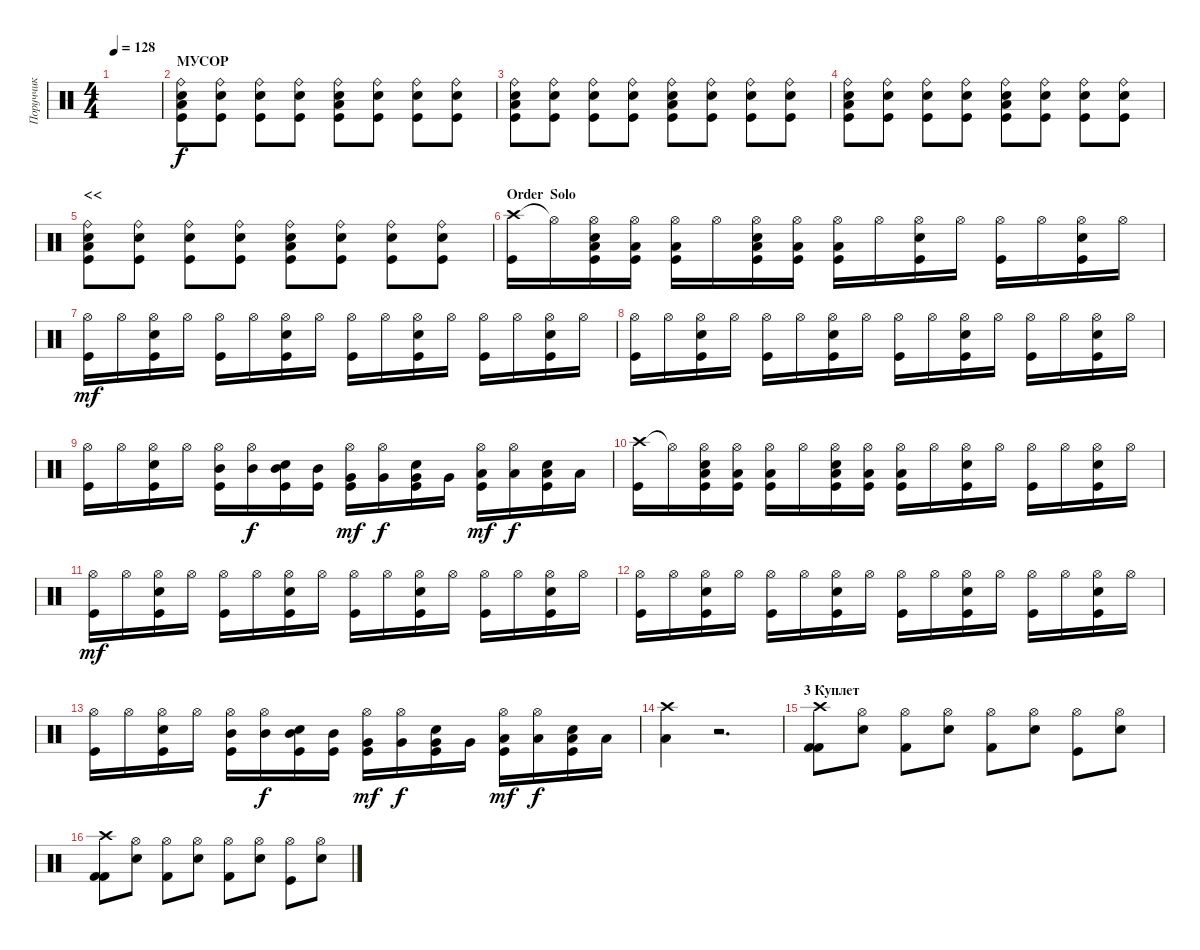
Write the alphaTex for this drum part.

\track ("Поруччик" "Поруччик") {instrument percussion}
\staff {score}
\articulation defaults
\ts (4 4)
\tempo 128
\clef neutral
\ks c
|
\section ("" "МУСОР")
("Ride (bell)" "Snare (hit) 2" "Low Tom (hit)" "Kick (hit)").8 ("Ride (bell)" "Snare (hit) 2" "Kick (hit)").8 ("Ride (bell)" "Snare (hit) 2" "Kick (hit)").8 ("Ride (bell)" "Snare (hit) 2" "Kick (hit)").8 ("Ride (bell)" "Snare (hit) 2" "Low Tom (hit)" "Kick (hit)").8 ("Ride (bell)" "Snare (hit) 2" "Kick (hit)").8 ("Ride (bell)" "Snare (hit) 2" "Kick (hit)").8 ("Ride (bell)" "Snare (hit) 2" "Kick (hit)").8 |
("Ride (bell)" "Snare (hit) 2" "Low Tom (hit)" "Kick (hit)").8 ("Ride (bell)" "Snare (hit) 2" "Kick (hit)").8 ("Ride (bell)" "Snare (hit) 2" "Kick (hit)").8 ("Ride (bell)" "Snare (hit) 2" "Kick (hit)").8 ("Ride (bell)" "Snare (hit) 2" "Low Tom (hit)" "Kick (hit)").8 ("Ride (bell)" "Snare (hit) 2" "Kick (hit)").8 ("Ride (bell)" "Snare (hit) 2" "Kick (hit)").8 ("Ride (bell)" "Snare (hit) 2" "Kick (hit)").8 |
("Ride (bell)" "Snare (hit) 2" "Low Tom (hit)" "Kick (hit)").8 ("Ride (bell)" "Snare (hit) 2" "Kick (hit)").8 ("Ride (bell)" "Snare (hit) 2" "Kick (hit)").8 ("Ride (bell)" "Snare (hit) 2" "Kick (hit)").8 ("Ride (bell)" "Snare (hit) 2" "Low Tom (hit)" "Kick (hit)").8 ("Ride (bell)" "Snare (hit) 2" "Kick (hit)").8 ("Ride (bell)" "Snare (hit) 2" "Kick (hit)").8 ("Ride (bell)" "Snare (hit) 2" "Kick (hit)").8 |
\section ("" "<<")
("Ride (bell)" "Snare (hit) 2" "Low Tom (hit)" "Kick (hit)").8 ("Ride (bell)" "Snare (hit) 2" "Kick (hit)").8 ("Ride (bell)" "Snare (hit) 2" "Kick (hit)").8 ("Ride (bell)" "Snare (hit) 2" "Kick (hit)").8 ("Ride (bell)" "Snare (hit) 2" "Low Tom (hit)" "Kick (hit)").8 ("Ride (bell)" "Snare (hit) 2" "Kick (hit)").8 ("Ride (bell)" "Snare (hit) 2" "Kick (hit)").8 ("Ride (bell)" "Snare (hit) 2" "Kick (hit)").8 |
\section ("" "Order  Solo")
("Crash high (hit)" "Kick (hit)").16 "Hi-Hat (open)"{t}.16 ("Hi-Hat (open)" "Snare (hit) 2" "Low Tom (hit)" "Kick (hit)").16 ("Hi-Hat (open)" "Low Tom (hit)" "Kick (hit)").16 ("Hi-Hat (open)" "Low Tom (hit)" "Kick (hit)").16 "Hi-Hat (open)".16 ("Hi-Hat (open)" "Snare (hit) 2" "Low Tom (hit)" "Kick (hit)").16 ("Hi-Hat (open)" "Low Tom (hit)" "Kick (hit)").16 ("Hi-Hat (open)" "Low Tom (hit)" "Kick (hit)").16 "Hi-Hat (open)".16 ("Hi-Hat (open)" "Snare (hit) 2" "Kick (hit)").16 "Hi-Hat (open)".16 ("Hi-Hat (open)" "Kick (hit)").16 "Hi-Hat (open)".16 ("Hi-Hat (open)" "Snare (hit) 2" "Kick (hit)").16 "Hi-Hat (open)".16 |
("Hi-Hat (open)" "Kick (hit)").16{dy mf} "Hi-Hat (open)".16 ("Hi-Hat (open)" "Snare (hit) 2" "Kick (hit)").16 "Hi-Hat (open)".16 ("Hi-Hat (open)" "Kick (hit)").16 "Hi-Hat (open)".16 ("Hi-Hat (open)" "Snare (hit) 2" "Kick (hit)").16 "Hi-Hat (open)".16 ("Hi-Hat (open)" "Kick (hit)").16 "Hi-Hat (open)".16 ("Hi-Hat (open)" "Snare (hit) 2" "Kick (hit)").16 "Hi-Hat (open)".16 ("Hi-Hat (open)" "Kick (hit)").16 "Hi-Hat (open)".16 ("Hi-Hat (open)" "Snare (hit) 2" "Kick (hit)").16 "Hi-Hat (open)".16 |
("Hi-Hat (open)" "Kick (hit)").16 "Hi-Hat (open)".16 ("Hi-Hat (open)" "Snare (hit) 2" "Kick (hit)").16 "Hi-Hat (open)".16 ("Hi-Hat (open)" "Kick (hit)").16 "Hi-Hat (open)".16 ("Hi-Hat (open)" "Snare (hit) 2" "Kick (hit)").16 "Hi-Hat (open)".16 ("Hi-Hat (open)" "Kick (hit)").16 "Hi-Hat (open)".16 ("Hi-Hat (open)" "Snare (hit) 2" "Kick (hit)").16 "Hi-Hat (open)".16 ("Hi-Hat (open)" "Kick (hit)").16 "Hi-Hat (open)".16 ("Hi-Hat (open)" "Snare (hit) 2" "Kick (hit)").16 "Hi-Hat (open)".16 |
("Hi-Hat (open)" "Kick (hit)").16 "Hi-Hat (open)".16 ("Hi-Hat (open)" "Snare (hit) 2" "Kick (hit)").16 "Hi-Hat (open)".16 ("Hi-Hat (open)" "Mid Tom (hit)" "Kick (hit)").16 ("Hi-Hat (open)" "Mid Tom (hit)").16{dy f} ("Mid Tom (hit)" "Snare (hit) 2" "Kick (hit)").16 ("Mid Tom (hit)" "Kick (hit)").16 ("Hi-Hat (open)" "Very Low Tom (hit)" "Kick (hit)").16{dy mf} ("Hi-Hat (open)" "Very Low Tom (hit)").16{dy f} ("Very Low Tom (hit)" "Snare (hit) 2" "Kick (hit)").16 "Very Low Tom (hit)".16 ("Hi-Hat (open)" "Low Tom (hit)" "Kick (hit)").16{dy mf} ("Hi-Hat (open)" "Low Tom (hit)").16{dy f} ("Snare (hit) 2" "Low Tom (hit)" "Kick (hit)").16 "Low Tom (hit)".16 |
("Crash high (hit)" "Kick (hit)").16 "Hi-Hat (open)"{t}.16 ("Hi-Hat (open)" "Snare (hit) 2" "Low Tom (hit)" "Kick (hit)").16 ("Hi-Hat (open)" "Low Tom (hit)" "Kick (hit)").16 ("Hi-Hat (open)" "Low Tom (hit)" "Kick (hit)").16 "Hi-Hat (open)".16 ("Hi-Hat (open)" "Snare (hit) 2" "Low Tom (hit)" "Kick (hit)").16 ("Hi-Hat (open)" "Low Tom (hit)" "Kick (hit)").16 ("Hi-Hat (open)" "Low Tom (hit)" "Kick (hit)").16 "Hi-Hat (open)".16 ("Hi-Hat (open)" "Snare (hit) 2" "Kick (hit)").16 "Hi-Hat (open)".16 ("Hi-Hat (open)" "Kick (hit)").16 "Hi-Hat (open)".16 ("Hi-Hat (open)" "Snare (hit) 2" "Kick (hit)").16 "Hi-Hat (open)".16 |
("Hi-Hat (open)" "Kick (hit)").16{dy mf} "Hi-Hat (open)".16 ("Hi-Hat (open)" "Snare (hit) 2" "Kick (hit)").16 "Hi-Hat (open)".16 ("Hi-Hat (open)" "Kick (hit)").16 "Hi-Hat (open)".16 ("Hi-Hat (open)" "Snare (hit) 2" "Kick (hit)").16 "Hi-Hat (open)".16 ("Hi-Hat (open)" "Kick (hit)").16 "Hi-Hat (open)".16 ("Hi-Hat (open)" "Snare (hit) 2" "Kick (hit)").16 "Hi-Hat (open)".16 ("Hi-Hat (open)" "Kick (hit)").16 "Hi-Hat (open)".16 ("Hi-Hat (open)" "Snare (hit) 2" "Kick (hit)").16 "Hi-Hat (open)".16 |
("Hi-Hat (open)" "Kick (hit)").16 "Hi-Hat (open)".16 ("Hi-Hat (open)" "Snare (hit) 2" "Kick (hit)").16 "Hi-Hat (open)".16 ("Hi-Hat (open)" "Kick (hit)").16 "Hi-Hat (open)".16 ("Hi-Hat (open)" "Snare (hit) 2" "Kick (hit)").16 "Hi-Hat (open)".16 ("Hi-Hat (open)" "Kick (hit)").16 "Hi-Hat (open)".16 ("Hi-Hat (open)" "Snare (hit) 2" "Kick (hit)").16 "Hi-Hat (open)".16 ("Hi-Hat (open)" "Kick (hit)").16 "Hi-Hat (open)".16 ("Hi-Hat (open)" "Snare (hit) 2" "Kick (hit)").16 "Hi-Hat (open)".16 |
("Hi-Hat (open)" "Kick (hit)").16 "Hi-Hat (open)".16 ("Hi-Hat (open)" "Snare (hit) 2" "Kick (hit)").16 "Hi-Hat (open)".16 ("Hi-Hat (open)" "Mid Tom (hit)" "Kick (hit)").16 ("Hi-Hat (open)" "Mid Tom (hit)").16{dy f} ("Mid Tom (hit)" "Snare (hit) 2" "Kick (hit)").16 ("Mid Tom (hit)" "Kick (hit)").16 ("Hi-Hat (open)" "Very Low Tom (hit)" "Kick (hit)").16{dy mf} ("Hi-Hat (open)" "Very Low Tom (hit)").16{dy f} ("Very Low Tom (hit)" "Snare (hit) 2" "Kick (hit)").16 "Very Low Tom (hit)".16 ("Hi-Hat (open)" "Low Tom (hit)" "Kick (hit)").16{dy mf} ("Hi-Hat (open)" "Low Tom (hit)").16{dy f} ("Snare (hit) 2" "Low Tom (hit)" "Kick (hit)").16 "Low Tom (hit)".16 |
("Crash high (hit)" "Low Tom (hit)").4 r.2{d} |
\section ("" "3 Куплет")
("Crash high (hit)" "Kick (hit) 2" "Kick (hit) 2").8 ("Hi-Hat (open)" "Snare (hit) 2").8 ("Hi-Hat (open)" "Kick (hit) 2").8 ("Hi-Hat (open)" "Snare (hit) 2").8 ("Hi-Hat (open)" "Kick (hit) 2").8 ("Hi-Hat (open)" "Snare (hit) 2").8 ("Hi-Hat (open)" "Kick (hit)").8 ("Snare (hit) 2" "Hi-Hat (open)").8 |
("Crash high (hit)" "Kick (hit) 2" "Kick (hit) 2").8 ("Hi-Hat (open)" "Snare (hit) 2").8 ("Hi-Hat (open)" "Kick (hit) 2").8 ("Hi-Hat (open)" "Snare (hit) 2").8 ("Hi-Hat (open)" "Kick (hit) 2").8 ("Hi-Hat (open)" "Snare (hit) 2").8 ("Hi-Hat (open)" "Kick (hit)").8 ("Snare (hit) 2" "Hi-Hat (open)").8
